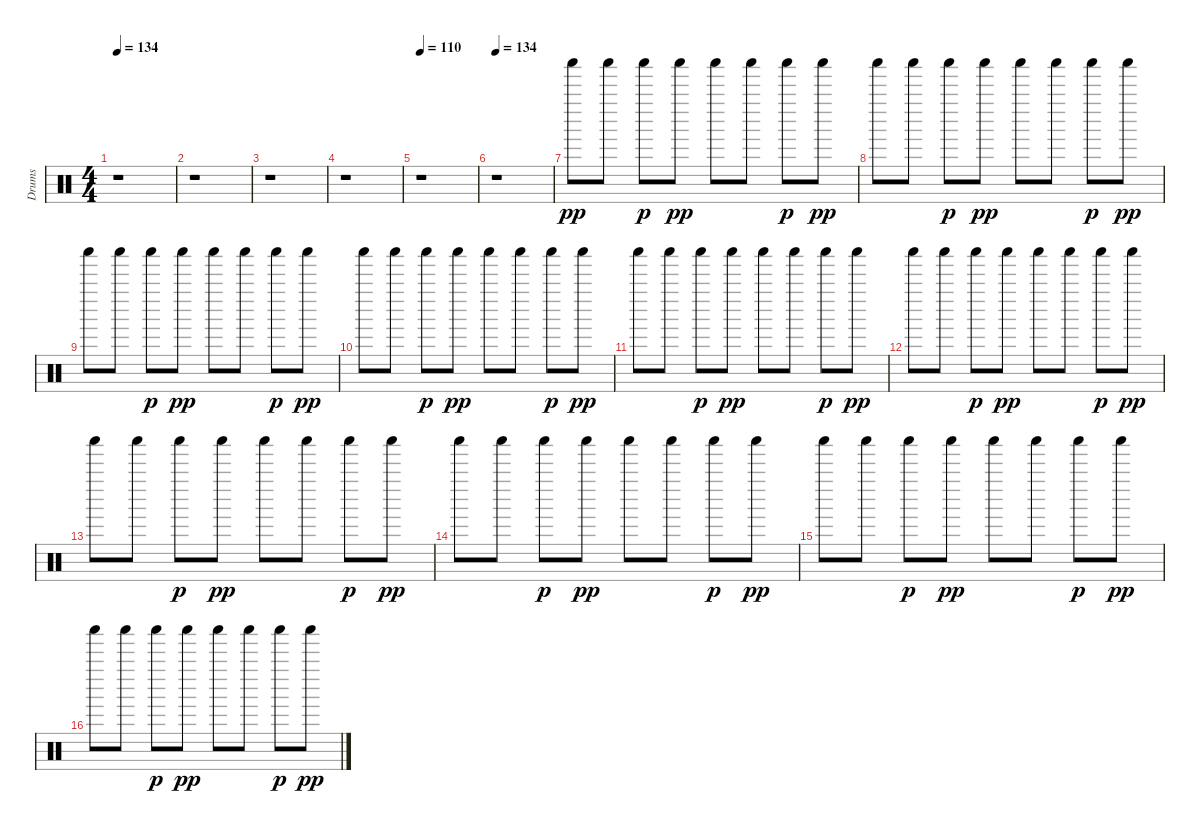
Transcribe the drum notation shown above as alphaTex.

\track ("Drums" "Drums") {instrument percussion}
\staff {score}
\articulation defaults
\ts (4 4)
\tempo 134
\clef neutral
\ks c
r.1{dy pp} |
r.1 |
r.1 |
r.1 |
\tempo 110
r.1 |
\tempo 134
r.1 |
"Shaker (hit)".8 "Shaker (hit)".8 "Shaker (hit)".8{dy p} "Shaker (hit)".8{dy pp} "Shaker (hit)".8 "Shaker (hit)".8 "Shaker (hit)".8{dy p} "Shaker (hit)".8{dy pp} |
"Shaker (hit)".8 "Shaker (hit)".8 "Shaker (hit)".8{dy p} "Shaker (hit)".8{dy pp} "Shaker (hit)".8 "Shaker (hit)".8 "Shaker (hit)".8{dy p} "Shaker (hit)".8{dy pp} |
"Shaker (hit)".8 "Shaker (hit)".8 "Shaker (hit)".8{dy p} "Shaker (hit)".8{dy pp} "Shaker (hit)".8 "Shaker (hit)".8 "Shaker (hit)".8{dy p} "Shaker (hit)".8{dy pp} |
"Shaker (hit)".8 "Shaker (hit)".8 "Shaker (hit)".8{dy p} "Shaker (hit)".8{dy pp} "Shaker (hit)".8 "Shaker (hit)".8 "Shaker (hit)".8{dy p} "Shaker (hit)".8{dy pp} |
"Shaker (hit)".8 "Shaker (hit)".8 "Shaker (hit)".8{dy p} "Shaker (hit)".8{dy pp} "Shaker (hit)".8 "Shaker (hit)".8 "Shaker (hit)".8{dy p} "Shaker (hit)".8{dy pp} |
"Shaker (hit)".8 "Shaker (hit)".8 "Shaker (hit)".8{dy p} "Shaker (hit)".8{dy pp} "Shaker (hit)".8 "Shaker (hit)".8 "Shaker (hit)".8{dy p} "Shaker (hit)".8{dy pp} |
"Shaker (hit)".8 "Shaker (hit)".8 "Shaker (hit)".8{dy p} "Shaker (hit)".8{dy pp} "Shaker (hit)".8 "Shaker (hit)".8 "Shaker (hit)".8{dy p} "Shaker (hit)".8{dy pp} |
"Shaker (hit)".8 "Shaker (hit)".8 "Shaker (hit)".8{dy p} "Shaker (hit)".8{dy pp} "Shaker (hit)".8 "Shaker (hit)".8 "Shaker (hit)".8{dy p} "Shaker (hit)".8{dy pp} |
"Shaker (hit)".8 "Shaker (hit)".8 "Shaker (hit)".8{dy p} "Shaker (hit)".8{dy pp} "Shaker (hit)".8 "Shaker (hit)".8 "Shaker (hit)".8{dy p} "Shaker (hit)".8{dy pp} |
"Shaker (hit)".8 "Shaker (hit)".8 "Shaker (hit)".8{dy p} "Shaker (hit)".8{dy pp} "Shaker (hit)".8 "Shaker (hit)".8 "Shaker (hit)".8{dy p} "Shaker (hit)".8{dy pp}
